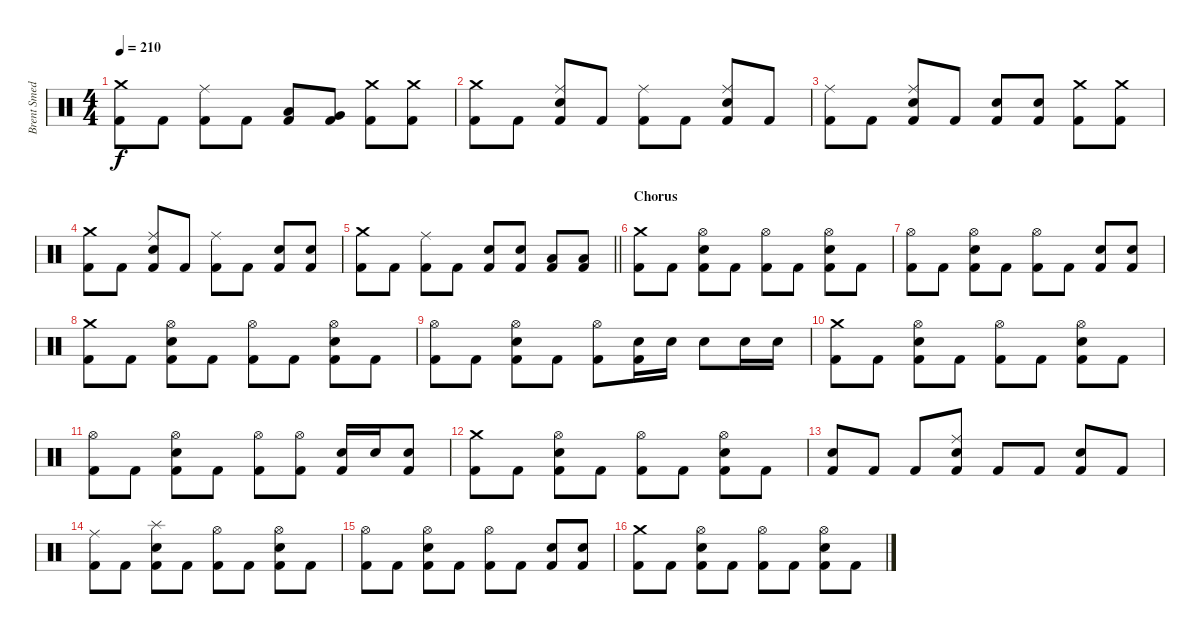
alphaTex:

\track ("Brent Smedley" "Brent Smed") {instrument percussion}
\staff {score}
\articulation defaults
\ts (4 4)
\tempo 210
\clef neutral
\ks c
("Crash medium (hit)" "Kick (hit) 2").8{dy f} "Kick (hit) 2".8 ("Ride (middle)" "Kick (hit) 2").8 "Kick (hit) 2".8 ("Low Tom (hit)" "Kick (hit) 2").8 ("Very Low Tom (hit)" "Kick (hit) 2").8 ("Crash medium (hit)" "Kick (hit) 2").8 ("Crash medium (hit)" "Kick (hit) 2").8 |
("Crash medium (hit)" "Kick (hit) 2").8 "Kick (hit) 2".8 ("Ride (middle)" "Electric Snare (hit)" "Kick (hit) 2").8 "Kick (hit) 2".8 ("Ride (middle)" "Kick (hit) 2").8 "Kick (hit) 2".8 ("Ride (middle)" "Electric Snare (hit)" "Kick (hit) 2").8 "Kick (hit) 2".8 |
("Ride (middle)" "Kick (hit) 2").8 "Kick (hit) 2".8 ("Ride (middle)" "Electric Snare (hit)" "Kick (hit) 2").8 "Kick (hit) 2".8 ("Electric Snare (hit)" "Kick (hit) 2").8 ("Electric Snare (hit)" "Kick (hit) 2").8 ("Crash medium (hit)" "Kick (hit) 2").8 ("Crash medium (hit)" "Kick (hit) 2").8 |
("Crash medium (hit)" "Kick (hit) 2").8 "Kick (hit) 2".8 ("Ride (middle)" "Electric Snare (hit)" "Kick (hit) 2").8 "Kick (hit) 2".8 ("Ride (middle)" "Kick (hit) 2").8 "Kick (hit) 2".8 ("Electric Snare (hit)" "Kick (hit) 2").8 ("Electric Snare (hit)" "Kick (hit) 2").8 |
\barLineRight lightlight
("Crash medium (hit)" "Kick (hit) 2").8 "Kick (hit) 2".8 ("Ride (middle)" "Kick (hit) 2").8 "Kick (hit) 2".8 ("Electric Snare (hit)" "Kick (hit) 2").8 ("Electric Snare (hit)" "Kick (hit) 2").8 ("Low Floor Tom (hit)" "Kick (hit) 2").8 ("Low Floor Tom (hit)" "Kick (hit) 2").8 |
\section ("" "Chorus")
("Crash medium (hit)" "Kick (hit) 2").8 "Kick (hit) 2".8 ("Hi-Hat (open)" "Electric Snare (hit)" "Kick (hit) 2").8 "Kick (hit) 2".8 ("Hi-Hat (open)" "Kick (hit) 2").8 "Kick (hit) 2".8 ("Hi-Hat (open)" "Electric Snare (hit)" "Kick (hit) 2").8 "Kick (hit) 2".8 |
("Hi-Hat (open)" "Kick (hit) 2").8 "Kick (hit) 2".8 ("Hi-Hat (open)" "Electric Snare (hit)" "Kick (hit) 2").8 "Kick (hit) 2".8 ("Hi-Hat (open)" "Kick (hit) 2").8 "Kick (hit) 2".8 ("Electric Snare (hit)" "Kick (hit) 2").8 ("Electric Snare (hit)" "Kick (hit) 2").8 |
("Crash medium (hit)" "Kick (hit) 2").8 "Kick (hit) 2".8 ("Hi-Hat (open)" "Electric Snare (hit)" "Kick (hit) 2").8 "Kick (hit) 2".8 ("Hi-Hat (open)" "Kick (hit) 2").8 "Kick (hit) 2".8 ("Hi-Hat (open)" "Electric Snare (hit)" "Kick (hit) 2").8 "Kick (hit) 2".8 |
("Hi-Hat (open)" "Kick (hit) 2").8 "Kick (hit) 2".8 ("Hi-Hat (open)" "Electric Snare (hit)" "Kick (hit) 2").8 "Kick (hit) 2".8 ("Hi-Hat (open)" "Kick (hit) 2").8 ("Electric Snare (hit)" "Kick (hit) 2").16 "Electric Snare (hit)".16 "Electric Snare (hit)".8 "Electric Snare (hit)".16 "Electric Snare (hit)".16 |
("Crash medium (hit)" "Kick (hit) 2").8 "Kick (hit) 2".8 ("Hi-Hat (open)" "Electric Snare (hit)" "Kick (hit) 2").8 "Kick (hit) 2".8 ("Hi-Hat (open)" "Kick (hit) 2").8 "Kick (hit) 2".8 ("Hi-Hat (open)" "Electric Snare (hit)" "Kick (hit) 2").8 "Kick (hit) 2".8 |
("Hi-Hat (open)" "Kick (hit) 2").8 "Kick (hit) 2".8 ("Hi-Hat (open)" "Electric Snare (hit)" "Kick (hit) 2").8 "Kick (hit) 2".8 ("Hi-Hat (open)" "Kick (hit) 2").8 ("Hi-Hat (open)" "Kick (hit) 2").8 ("Electric Snare (hit)" "Kick (hit) 2").16 "Electric Snare (hit)".16 ("Electric Snare (hit)" "Kick (hit) 2").8 |
("Crash medium (hit)" "Kick (hit) 2").8 "Kick (hit) 2".8 ("Hi-Hat (open)" "Electric Snare (hit)" "Kick (hit) 2").8 "Kick (hit) 2".8 ("Hi-Hat (open)" "Kick (hit) 2").8 "Kick (hit) 2".8 ("Hi-Hat (open)" "Electric Snare (hit)" "Kick (hit) 2").8 "Kick (hit) 2".8 |
("Electric Snare (hit)" "Kick (hit) 2").8 "Kick (hit) 2".8 "Kick (hit) 2".8 ("Ride (middle)" "Electric Snare (hit)" "Kick (hit) 2").8 "Kick (hit) 2".8 "Kick (hit) 2".8 ("Electric Snare (hit)" "Kick (hit) 2").8 "Kick (hit) 2".8 |
("Ride (middle)" "Kick (hit) 2").8 "Kick (hit) 2".8 ("Splash (hit)" "Electric Snare (hit)" "Kick (hit) 2").8 "Kick (hit) 2".8 ("Hi-Hat (open)" "Kick (hit) 2").8 "Kick (hit) 2".8 ("Hi-Hat (open)" "Electric Snare (hit)" "Kick (hit) 2").8 "Kick (hit) 2".8 |
("Hi-Hat (open)" "Kick (hit) 2").8 "Kick (hit) 2".8 ("Hi-Hat (open)" "Electric Snare (hit)" "Kick (hit) 2").8 "Kick (hit) 2".8 ("Hi-Hat (open)" "Kick (hit) 2").8 "Kick (hit) 2".8 ("Electric Snare (hit)" "Kick (hit) 2").8 ("Electric Snare (hit)" "Kick (hit) 2").8 |
("Crash medium (hit)" "Kick (hit) 2").8 "Kick (hit) 2".8 ("Hi-Hat (open)" "Electric Snare (hit)" "Kick (hit) 2").8 "Kick (hit) 2".8 ("Hi-Hat (open)" "Kick (hit) 2").8 "Kick (hit) 2".8 ("Hi-Hat (open)" "Electric Snare (hit)" "Kick (hit) 2").8 "Kick (hit) 2".8
